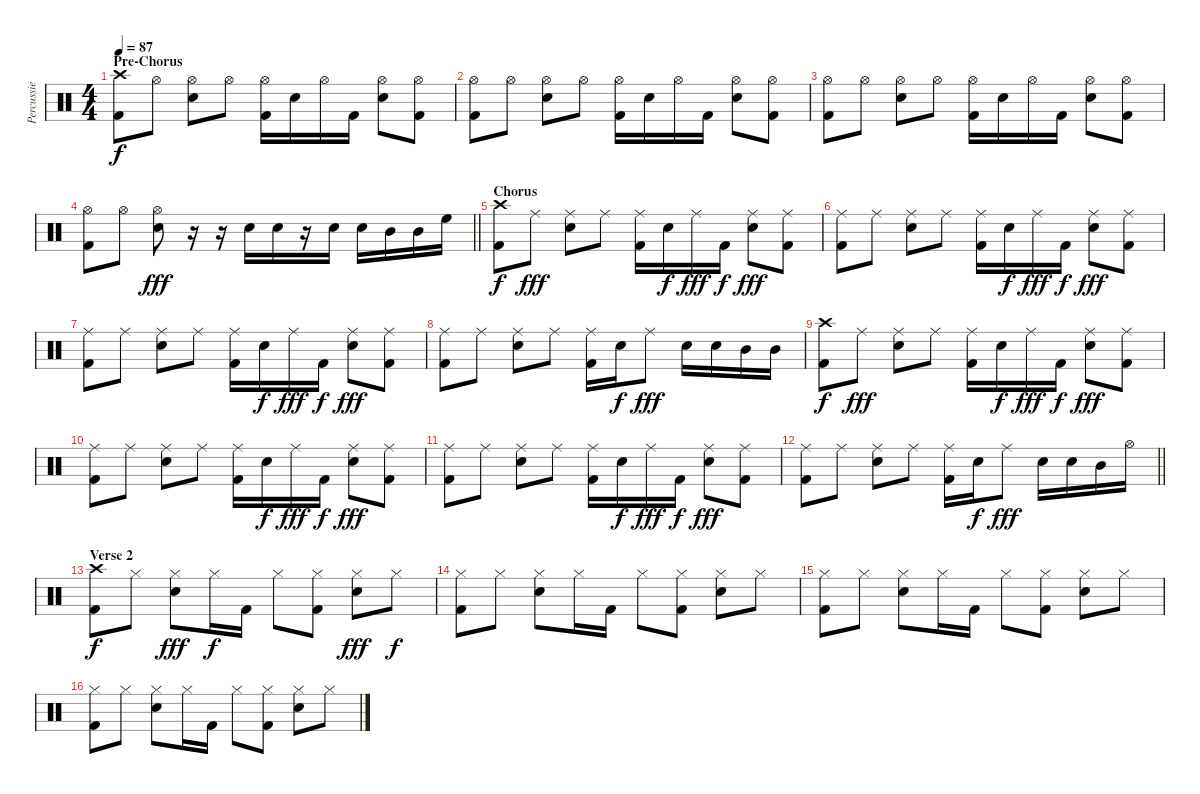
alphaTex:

\track ("Percussie" "Percussie") {instrument percussion}
\staff {score}
\articulation defaults
\ts (4 4)
\section ("" "Pre-Chorus")
\tempo 87
\clef neutral
\ks c
("Crash high (hit)" "Kick (hit) 2").8{dy f} "Hi-Hat (open)".8 ("Hi-Hat (open)" "Snare (hit) 2").8 "Hi-Hat (open)".8 ("Hi-Hat (open)" "Kick (hit) 2").16 "Snare (hit) 2".16 "Hi-Hat (open)".16 "Kick (hit) 2".16 ("Hi-Hat (open)" "Snare (hit) 2").8 ("Hi-Hat (open)" "Kick (hit) 2").8 |
("Hi-Hat (open)" "Kick (hit) 2").8 "Hi-Hat (open)".8 ("Hi-Hat (open)" "Snare (hit) 2").8 "Hi-Hat (open)".8 ("Hi-Hat (open)" "Kick (hit) 2").16 "Snare (hit) 2".16 "Hi-Hat (open)".16 "Kick (hit) 2".16 ("Hi-Hat (open)" "Snare (hit) 2").8 ("Hi-Hat (open)" "Kick (hit) 2").8 |
("Hi-Hat (open)" "Kick (hit) 2").8 "Hi-Hat (open)".8 ("Hi-Hat (open)" "Snare (hit) 2").8 "Hi-Hat (open)".8 ("Hi-Hat (open)" "Kick (hit) 2").16 "Snare (hit) 2".16 "Hi-Hat (open)".16 "Kick (hit) 2".16 ("Hi-Hat (open)" "Snare (hit) 2").8 ("Hi-Hat (open)" "Kick (hit) 2").8 |
\barLineRight lightlight
("Hi-Hat (open)" "Kick (hit) 2").8 "Hi-Hat (open)".8 ("Hi-Hat (open)" "Snare (hit) 2").8{dy fff} r.16 r.16 "Snare (hit) 2".16 "Snare (hit) 2".16 r.16 "Snare (hit) 2".16 "Snare (hit) 2".16 "Mid Tom (hit)".16 "Mid Tom (hit)".16 "High Floor Tom (hit)".16 |
\section ("" "Chorus")
("Crash high (hit)" "Kick (hit) 2").8{dy f} "Ride (middle)".8{dy fff} ("Ride (middle)" "Snare (hit) 2").8 "Ride (middle)".8 ("Ride (middle)" "Kick (hit) 2").16 "Snare (hit) 2".16{dy f} "Ride (middle)".16{dy fff} "Kick (hit) 2".16{dy f} ("Ride (middle)" "Snare (hit) 2").8{dy fff} ("Ride (middle)" "Kick (hit) 2").8 |
("Ride (middle)" "Kick (hit) 2").8 "Ride (middle)".8 ("Ride (middle)" "Snare (hit) 2").8 "Ride (middle)".8 ("Ride (middle)" "Kick (hit) 2").16 "Snare (hit) 2".16{dy f} "Ride (middle)".16{dy fff} "Kick (hit) 2".16{dy f} ("Ride (middle)" "Snare (hit) 2").8{dy fff} ("Ride (middle)" "Kick (hit) 2").8 |
("Ride (middle)" "Kick (hit) 2").8 "Ride (middle)".8 ("Ride (middle)" "Snare (hit) 2").8 "Ride (middle)".8 ("Ride (middle)" "Kick (hit) 2").16 "Snare (hit) 2".16{dy f} "Ride (middle)".16{dy fff} "Kick (hit) 2".16{dy f} ("Ride (middle)" "Snare (hit) 2").8{dy fff} ("Ride (middle)" "Kick (hit) 2").8 |
("Ride (middle)" "Kick (hit) 2").8 "Ride (middle)".8 ("Ride (middle)" "Snare (hit) 2").8 "Ride (middle)".8 ("Ride (middle)" "Kick (hit) 2").16 "Snare (hit) 2".16{dy f} "Ride (middle)".8{dy fff} "Snare (hit) 2".16 "Snare (hit) 2".16 "Mid Tom (hit)".16 "Mid Tom (hit)".16 |
("Crash high (hit)" "Kick (hit) 2").8{dy f} "Ride (middle)".8{dy fff} ("Ride (middle)" "Snare (hit) 2").8 "Ride (middle)".8 ("Ride (middle)" "Kick (hit) 2").16 "Snare (hit) 2".16{dy f} "Ride (middle)".16{dy fff} "Kick (hit) 2".16{dy f} ("Ride (middle)" "Snare (hit) 2").8{dy fff} ("Ride (middle)" "Kick (hit) 2").8 |
("Ride (middle)" "Kick (hit) 2").8 "Ride (middle)".8 ("Ride (middle)" "Snare (hit) 2").8 "Ride (middle)".8 ("Ride (middle)" "Kick (hit) 2").16 "Snare (hit) 2".16{dy f} "Ride (middle)".16{dy fff} "Kick (hit) 2".16{dy f} ("Ride (middle)" "Snare (hit) 2").8{dy fff} ("Ride (middle)" "Kick (hit) 2").8 |
("Ride (middle)" "Kick (hit) 2").8 "Ride (middle)".8 ("Ride (middle)" "Snare (hit) 2").8 "Ride (middle)".8 ("Ride (middle)" "Kick (hit) 2").16 "Snare (hit) 2".16{dy f} "Ride (middle)".16{dy fff} "Kick (hit) 2".16{dy f} ("Ride (middle)" "Snare (hit) 2").8{dy fff} ("Ride (middle)" "Kick (hit) 2").8 |
\barLineRight lightlight
("Ride (middle)" "Kick (hit) 2").8 "Ride (middle)".8 ("Ride (middle)" "Snare (hit) 2").8 "Ride (middle)".8 ("Ride (middle)" "Kick (hit) 2").16 "Snare (hit) 2".16{dy f} "Ride (middle)".8{dy fff} "Snare (hit) 2".16 "Snare (hit) 2".16 "Mid Tom (hit)".16 "Hi-Hat (open)".16 |
\section ("" "Verse 2")
("Crash high (hit)" "Kick (hit) 2").8{dy f} "Hi-Hat (closed)".8 ("Hi-Hat (closed)" "Snare (hit) 2").8{dy fff} "Hi-Hat (closed)".16{dy f} "Kick (hit) 2".16 "Hi-Hat (closed)".8 ("Hi-Hat (closed)" "Kick (hit) 2").8 ("Hi-Hat (closed)" "Snare (hit) 2").8{dy fff} "Hi-Hat (closed)".8{dy f} |
("Hi-Hat (closed)" "Kick (hit) 2").8 "Hi-Hat (closed)".8 ("Hi-Hat (closed)" "Snare (hit) 2").8 "Hi-Hat (closed)".16 "Kick (hit) 2".16 "Hi-Hat (closed)".8 ("Hi-Hat (closed)" "Kick (hit) 2").8 ("Hi-Hat (closed)" "Snare (hit) 2").8 "Hi-Hat (closed)".8 |
("Hi-Hat (closed)" "Kick (hit) 2").8 "Hi-Hat (closed)".8 ("Hi-Hat (closed)" "Snare (hit) 2").8 "Hi-Hat (closed)".16 "Kick (hit) 2".16 "Hi-Hat (closed)".8 ("Hi-Hat (closed)" "Kick (hit) 2").8 ("Hi-Hat (closed)" "Snare (hit) 2").8 "Hi-Hat (closed)".8 |
("Hi-Hat (closed)" "Kick (hit) 2").8 "Hi-Hat (closed)".8 ("Hi-Hat (closed)" "Snare (hit) 2").8 "Hi-Hat (closed)".16 "Kick (hit) 2".16 "Hi-Hat (closed)".8 ("Hi-Hat (closed)" "Kick (hit) 2").8 ("Hi-Hat (closed)" "Snare (hit) 2").8 "Hi-Hat (closed)".8
